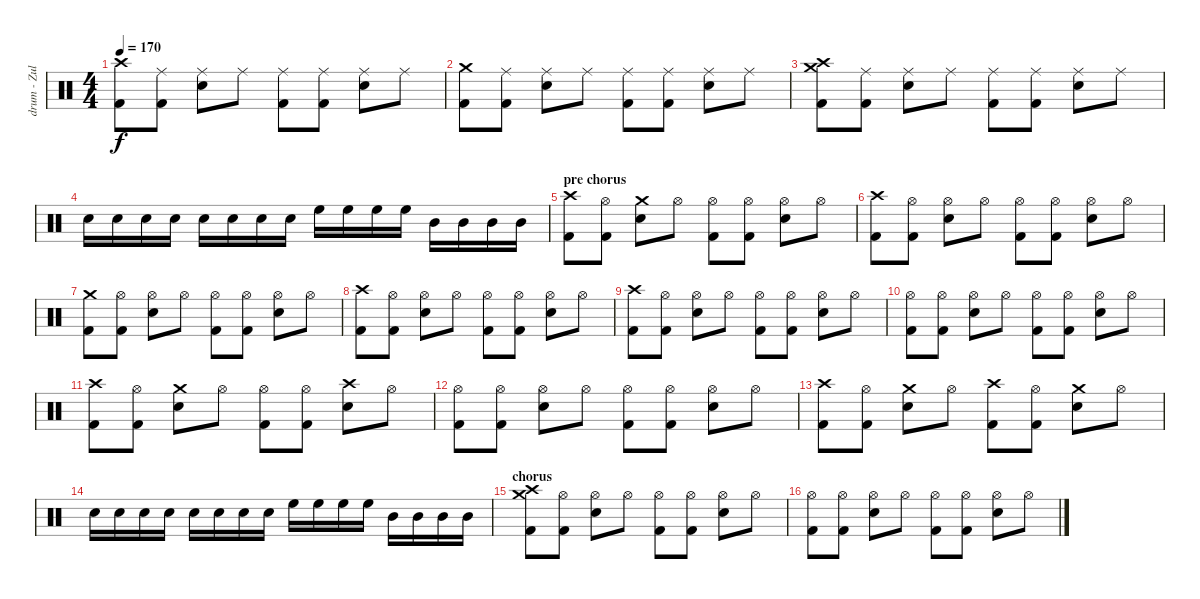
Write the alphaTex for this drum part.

\track ("drum - Zul ???" "drum - Zul") {instrument percussion}
\staff {score}
\articulation defaults
\ts (4 4)
\tempo 170
\clef neutral
\ks c
("Crash high (hit)" "Kick (hit) 2").8{dy f} ("Ride (middle)" "Kick (hit) 2").8 ("Ride (middle)" "Snare (hit) 2").8 "Ride (middle)".8 ("Ride (middle)" "Kick (hit) 2").8 ("Ride (middle)" "Kick (hit) 2").8 ("Ride (middle)" "Snare (hit) 2").8 "Ride (middle)".8 |
("Crash medium (hit)" "Kick (hit) 2").8 ("Ride (middle)" "Kick (hit) 2").8 ("Ride (middle)" "Snare (hit) 2").8 "Ride (middle)".8 ("Ride (middle)" "Kick (hit) 2").8 ("Ride (middle)" "Kick (hit) 2").8 ("Ride (middle)" "Snare (hit) 2").8 "Ride (middle)".8 |
("Crash high (hit)" "Crash medium (hit)" "Kick (hit) 2").8 ("Ride (middle)" "Kick (hit) 2").8 ("Ride (middle)" "Snare (hit) 2").8 "Ride (middle)".8 ("Ride (middle)" "Kick (hit) 2").8 ("Ride (middle)" "Kick (hit) 2").8 ("Ride (middle)" "Snare (hit) 2").8 "Ride (middle)".8 |
"Snare (hit) 2".16 "Snare (hit) 2".16 "Snare (hit) 2".16 "Snare (hit) 2".16 "Snare (hit) 2".16 "Snare (hit) 2".16 "Snare (hit) 2".16 "Snare (hit) 2".16 "High Floor Tom (hit)".16 "High Floor Tom (hit)".16 "High Floor Tom (hit)".16 "High Floor Tom (hit)".16 "Mid Tom (hit)".16 "Mid Tom (hit)".16 "Mid Tom (hit)".16 "Mid Tom (hit)".16 |
\section ("" "pre chorus")
("Crash high (hit)" "Kick (hit) 2").8 ("Hi-Hat (open)" "Kick (hit) 2").8 ("Crash medium (hit)" "Snare (hit) 2").8 "Hi-Hat (open)".8 ("Hi-Hat (open)" "Kick (hit) 2").8 ("Hi-Hat (open)" "Kick (hit) 2").8 ("Hi-Hat (open)" "Snare (hit) 2").8 "Hi-Hat (open)".8 |
("Crash high (hit)" "Kick (hit) 2").8 ("Hi-Hat (open)" "Kick (hit) 2").8 ("Hi-Hat (open)" "Snare (hit) 2").8 "Hi-Hat (open)".8 ("Hi-Hat (open)" "Kick (hit) 2").8 ("Hi-Hat (open)" "Kick (hit) 2").8 ("Hi-Hat (open)" "Snare (hit) 2").8 "Hi-Hat (open)".8 |
("Crash medium (hit)" "Kick (hit) 2").8 ("Hi-Hat (open)" "Kick (hit) 2").8 ("Hi-Hat (open)" "Snare (hit) 2").8 "Hi-Hat (open)".8 ("Hi-Hat (open)" "Kick (hit) 2").8 ("Hi-Hat (open)" "Kick (hit) 2").8 ("Hi-Hat (open)" "Snare (hit) 2").8 "Hi-Hat (open)".8 |
("Crash high (hit)" "Kick (hit) 2").8 ("Hi-Hat (open)" "Kick (hit) 2").8 ("Hi-Hat (open)" "Snare (hit) 2").8 "Hi-Hat (open)".8 ("Hi-Hat (open)" "Kick (hit) 2").8 ("Hi-Hat (open)" "Kick (hit) 2").8 ("Hi-Hat (open)" "Snare (hit) 2").8 "Hi-Hat (open)".8 |
("Crash high (hit)" "Kick (hit) 2").8 ("Hi-Hat (open)" "Kick (hit) 2").8 ("Hi-Hat (open)" "Snare (hit) 2").8 "Hi-Hat (open)".8 ("Hi-Hat (open)" "Kick (hit) 2").8 ("Hi-Hat (open)" "Kick (hit) 2").8 ("Hi-Hat (open)" "Snare (hit) 2").8 "Hi-Hat (open)".8 |
("Hi-Hat (open)" "Kick (hit) 2").8 ("Hi-Hat (open)" "Kick (hit) 2").8 ("Hi-Hat (open)" "Snare (hit) 2").8 "Hi-Hat (open)".8 ("Hi-Hat (open)" "Kick (hit) 2").8 ("Hi-Hat (open)" "Kick (hit) 2").8 ("Hi-Hat (open)" "Snare (hit) 2").8 "Hi-Hat (open)".8 |
("Crash high (hit)" "Kick (hit) 2").8 ("Hi-Hat (open)" "Kick (hit) 2").8 ("Crash medium (hit)" "Snare (hit) 2").8 "Hi-Hat (open)".8 ("Hi-Hat (open)" "Kick (hit) 2").8 ("Hi-Hat (open)" "Kick (hit) 2").8 ("Crash high (hit)" "Snare (hit) 2").8 "Hi-Hat (open)".8 |
("Hi-Hat (open)" "Kick (hit) 2").8 ("Hi-Hat (open)" "Kick (hit) 2").8 ("Hi-Hat (open)" "Snare (hit) 2").8 "Hi-Hat (open)".8 ("Hi-Hat (open)" "Kick (hit) 2").8 ("Hi-Hat (open)" "Kick (hit) 2").8 ("Hi-Hat (open)" "Snare (hit) 2").8 "Hi-Hat (open)".8 |
("Crash high (hit)" "Kick (hit) 2").8 ("Hi-Hat (open)" "Kick (hit) 2").8 ("Crash medium (hit)" "Snare (hit) 2").8 "Hi-Hat (open)".8 ("Crash high (hit)" "Kick (hit) 2").8 ("Hi-Hat (open)" "Kick (hit) 2").8 ("Crash medium (hit)" "Snare (hit) 2").8 "Hi-Hat (open)".8 |
"Snare (hit) 2".16 "Snare (hit) 2".16 "Snare (hit) 2".16 "Snare (hit) 2".16 "Snare (hit) 2".16 "Snare (hit) 2".16 "Snare (hit) 2".16 "Snare (hit) 2".16 "High Floor Tom (hit)".16 "High Floor Tom (hit)".16 "High Floor Tom (hit)".16 "High Floor Tom (hit)".16 "Mid Tom (hit)".16 "Mid Tom (hit)".16 "Mid Tom (hit)".16 "Mid Tom (hit)".16 |
\section ("" "chorus")
("Crash high (hit)" "Crash medium (hit)" "Kick (hit) 2").8 ("Hi-Hat (open)" "Kick (hit) 2").8 ("Hi-Hat (open)" "Snare (hit) 2").8 "Hi-Hat (open)".8 ("Hi-Hat (open)" "Kick (hit) 2").8 ("Hi-Hat (open)" "Kick (hit) 2").8 ("Hi-Hat (open)" "Snare (hit) 2").8 "Hi-Hat (open)".8 |
("Hi-Hat (open)" "Kick (hit) 2").8 ("Hi-Hat (open)" "Kick (hit) 2").8 ("Hi-Hat (open)" "Snare (hit) 2").8 "Hi-Hat (open)".8 ("Hi-Hat (open)" "Kick (hit) 2").8 ("Hi-Hat (open)" "Kick (hit) 2").8 ("Hi-Hat (open)" "Snare (hit) 2").8 "Hi-Hat (open)".8
